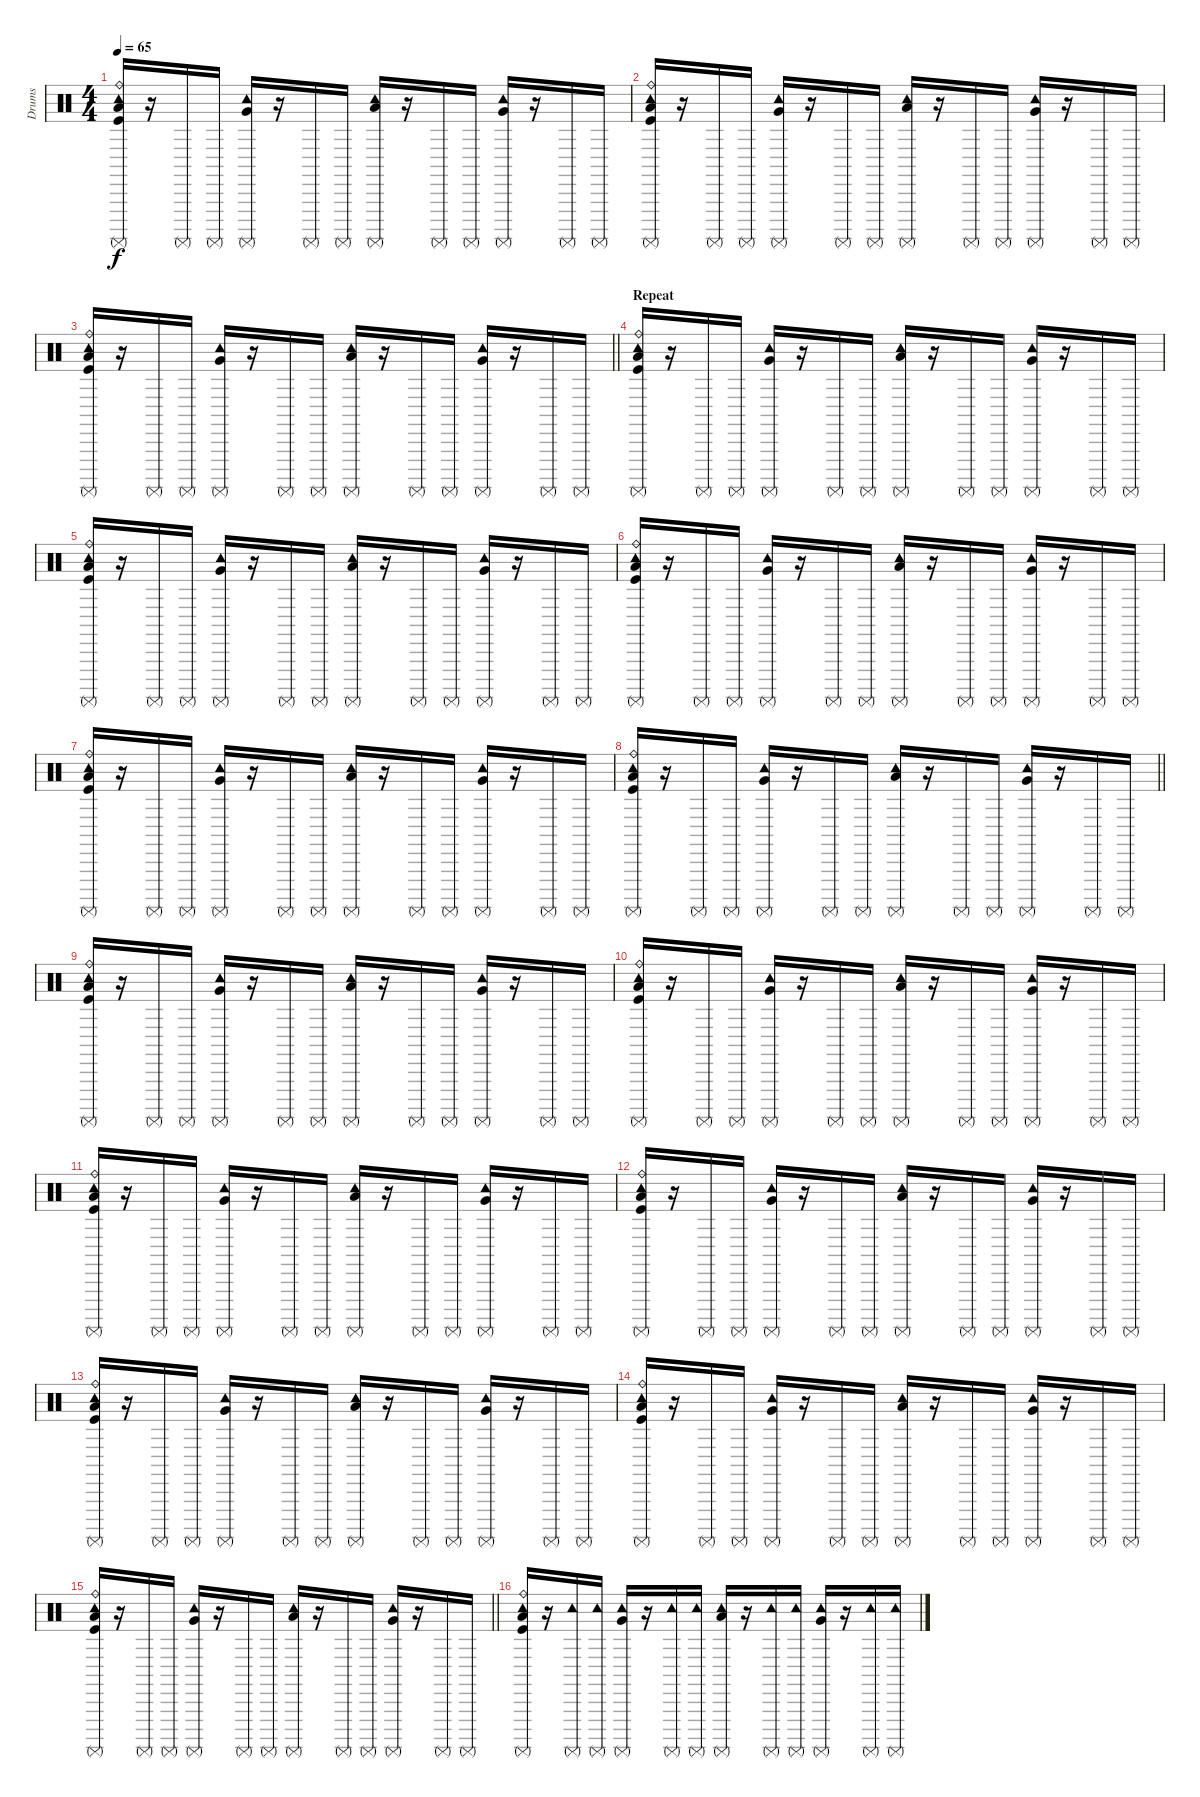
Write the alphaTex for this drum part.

\track ("Drums" "Drums") {instrument percussion}
\staff {score}
\articulation defaults
\ts (4 4)
\tempo 65
\clef neutral
\ks c
("Ride (bell)" "Tambourine (hit)" "Low Floor Tom (hit)" "Surdo (mute)" "Kick (hit)").16{dy f} r.16 "Surdo (mute)".16 "Surdo (mute)".16 ("Tambourine (hit)" "Very Low Tom (hit)" "Surdo (mute)").16 r.16 "Surdo (mute)".16 "Surdo (mute)".16 ("Tambourine (hit)" "Low Floor Tom (hit)" "Surdo (mute)").16 r.16 "Surdo (mute)".16 "Surdo (mute)".16 ("Tambourine (hit)" "Very Low Tom (hit)" "Surdo (mute)").16 r.16 "Surdo (mute)".16 "Surdo (mute)".16 |
("Ride (bell)" "Tambourine (hit)" "Low Floor Tom (hit)" "Surdo (mute)" "Kick (hit)").16 r.16 "Surdo (mute)".16 "Surdo (mute)".16 ("Tambourine (hit)" "Very Low Tom (hit)" "Surdo (mute)").16 r.16 "Surdo (mute)".16 "Surdo (mute)".16 ("Tambourine (hit)" "Low Floor Tom (hit)" "Surdo (mute)").16 r.16 "Surdo (mute)".16 "Surdo (mute)".16 ("Tambourine (hit)" "Very Low Tom (hit)" "Surdo (mute)").16 r.16 "Surdo (mute)".16 "Surdo (mute)".16 |
\barLineRight lightlight
("Ride (bell)" "Tambourine (hit)" "Low Floor Tom (hit)" "Surdo (mute)" "Kick (hit)").16 r.16 "Surdo (mute)".16 "Surdo (mute)".16 ("Tambourine (hit)" "Very Low Tom (hit)" "Surdo (mute)").16 r.16 "Surdo (mute)".16 "Surdo (mute)".16 ("Tambourine (hit)" "Low Floor Tom (hit)" "Surdo (mute)").16 r.16 "Surdo (mute)".16 "Surdo (mute)".16 ("Tambourine (hit)" "Very Low Tom (hit)" "Surdo (mute)").16 r.16 "Surdo (mute)".16 "Surdo (mute)".16 |
\section ("" "Repeat")
("Ride (bell)" "Tambourine (hit)" "Low Floor Tom (hit)" "Surdo (mute)" "Kick (hit)").16 r.16 "Surdo (mute)".16 "Surdo (mute)".16 ("Tambourine (hit)" "Very Low Tom (hit)" "Surdo (mute)").16 r.16 "Surdo (mute)".16 "Surdo (mute)".16 ("Tambourine (hit)" "Low Floor Tom (hit)" "Surdo (mute)").16 r.16 "Surdo (mute)".16 "Surdo (mute)".16 ("Tambourine (hit)" "Very Low Tom (hit)" "Surdo (mute)").16 r.16 "Surdo (mute)".16 "Surdo (mute)".16 |
("Ride (bell)" "Tambourine (hit)" "Low Floor Tom (hit)" "Surdo (mute)" "Kick (hit)").16 r.16 "Surdo (mute)".16 "Surdo (mute)".16 ("Tambourine (hit)" "Very Low Tom (hit)" "Surdo (mute)").16 r.16 "Surdo (mute)".16 "Surdo (mute)".16 ("Tambourine (hit)" "Low Floor Tom (hit)" "Surdo (mute)").16 r.16 "Surdo (mute)".16 "Surdo (mute)".16 ("Tambourine (hit)" "Very Low Tom (hit)" "Surdo (mute)").16 r.16 "Surdo (mute)".16 "Surdo (mute)".16 |
("Ride (bell)" "Tambourine (hit)" "Low Floor Tom (hit)" "Surdo (mute)" "Kick (hit)").16 r.16 "Surdo (mute)".16 "Surdo (mute)".16 ("Tambourine (hit)" "Very Low Tom (hit)" "Surdo (mute)").16 r.16 "Surdo (mute)".16 "Surdo (mute)".16 ("Tambourine (hit)" "Low Floor Tom (hit)" "Surdo (mute)").16 r.16 "Surdo (mute)".16 "Surdo (mute)".16 ("Tambourine (hit)" "Very Low Tom (hit)" "Surdo (mute)").16 r.16 "Surdo (mute)".16 "Surdo (mute)".16 |
("Ride (bell)" "Tambourine (hit)" "Low Floor Tom (hit)" "Surdo (mute)" "Kick (hit)").16 r.16 "Surdo (mute)".16 "Surdo (mute)".16 ("Tambourine (hit)" "Very Low Tom (hit)" "Surdo (mute)").16 r.16 "Surdo (mute)".16 "Surdo (mute)".16 ("Tambourine (hit)" "Low Floor Tom (hit)" "Surdo (mute)").16 r.16 "Surdo (mute)".16 "Surdo (mute)".16 ("Tambourine (hit)" "Very Low Tom (hit)" "Surdo (mute)").16 r.16 "Surdo (mute)".16 "Surdo (mute)".16 |
\barLineRight lightlight
("Ride (bell)" "Tambourine (hit)" "Low Floor Tom (hit)" "Surdo (mute)" "Kick (hit)").16 r.16 "Surdo (mute)".16 "Surdo (mute)".16 ("Tambourine (hit)" "Very Low Tom (hit)" "Surdo (mute)").16 r.16 "Surdo (mute)".16 "Surdo (mute)".16 ("Tambourine (hit)" "Low Floor Tom (hit)" "Surdo (mute)").16 r.16 "Surdo (mute)".16 "Surdo (mute)".16 ("Tambourine (hit)" "Very Low Tom (hit)" "Surdo (mute)").16 r.16 "Surdo (mute)".16 "Surdo (mute)".16 |
("Ride (bell)" "Tambourine (hit)" "Low Floor Tom (hit)" "Surdo (mute)" "Kick (hit)").16 r.16 "Surdo (mute)".16 "Surdo (mute)".16 ("Tambourine (hit)" "Very Low Tom (hit)" "Surdo (mute)").16 r.16 "Surdo (mute)".16 "Surdo (mute)".16 ("Tambourine (hit)" "Low Floor Tom (hit)" "Surdo (mute)").16 r.16 "Surdo (mute)".16 "Surdo (mute)".16 ("Tambourine (hit)" "Very Low Tom (hit)" "Surdo (mute)").16 r.16 "Surdo (mute)".16 "Surdo (mute)".16 |
("Ride (bell)" "Tambourine (hit)" "Low Floor Tom (hit)" "Surdo (mute)" "Kick (hit)").16 r.16 "Surdo (mute)".16 "Surdo (mute)".16 ("Tambourine (hit)" "Very Low Tom (hit)" "Surdo (mute)").16 r.16 "Surdo (mute)".16 "Surdo (mute)".16 ("Tambourine (hit)" "Low Floor Tom (hit)" "Surdo (mute)").16 r.16 "Surdo (mute)".16 "Surdo (mute)".16 ("Tambourine (hit)" "Very Low Tom (hit)" "Surdo (mute)").16 r.16 "Surdo (mute)".16 "Surdo (mute)".16 |
("Ride (bell)" "Tambourine (hit)" "Low Floor Tom (hit)" "Surdo (mute)" "Kick (hit)").16 r.16 "Surdo (mute)".16 "Surdo (mute)".16 ("Tambourine (hit)" "Very Low Tom (hit)" "Surdo (mute)").16 r.16 "Surdo (mute)".16 "Surdo (mute)".16 ("Tambourine (hit)" "Low Floor Tom (hit)" "Surdo (mute)").16 r.16 "Surdo (mute)".16 "Surdo (mute)".16 ("Tambourine (hit)" "Very Low Tom (hit)" "Surdo (mute)").16 r.16 "Surdo (mute)".16 "Surdo (mute)".16 |
("Ride (bell)" "Tambourine (hit)" "Low Floor Tom (hit)" "Surdo (mute)" "Kick (hit)").16 r.16 "Surdo (mute)".16 "Surdo (mute)".16 ("Tambourine (hit)" "Very Low Tom (hit)" "Surdo (mute)").16 r.16 "Surdo (mute)".16 "Surdo (mute)".16 ("Tambourine (hit)" "Low Floor Tom (hit)" "Surdo (mute)").16 r.16 "Surdo (mute)".16 "Surdo (mute)".16 ("Tambourine (hit)" "Very Low Tom (hit)" "Surdo (mute)").16 r.16 "Surdo (mute)".16 "Surdo (mute)".16 |
("Ride (bell)" "Tambourine (hit)" "Low Floor Tom (hit)" "Surdo (mute)" "Kick (hit)").16 r.16 "Surdo (mute)".16 "Surdo (mute)".16 ("Tambourine (hit)" "Very Low Tom (hit)" "Surdo (mute)").16 r.16 "Surdo (mute)".16 "Surdo (mute)".16 ("Tambourine (hit)" "Low Floor Tom (hit)" "Surdo (mute)").16 r.16 "Surdo (mute)".16 "Surdo (mute)".16 ("Tambourine (hit)" "Very Low Tom (hit)" "Surdo (mute)").16 r.16 "Surdo (mute)".16 "Surdo (mute)".16 |
("Ride (bell)" "Tambourine (hit)" "Low Floor Tom (hit)" "Surdo (mute)" "Kick (hit)").16 r.16 "Surdo (mute)".16 "Surdo (mute)".16 ("Tambourine (hit)" "Very Low Tom (hit)" "Surdo (mute)").16 r.16 "Surdo (mute)".16 "Surdo (mute)".16 ("Tambourine (hit)" "Low Floor Tom (hit)" "Surdo (mute)").16 r.16 "Surdo (mute)".16 "Surdo (mute)".16 ("Tambourine (hit)" "Very Low Tom (hit)" "Surdo (mute)").16 r.16 "Surdo (mute)".16 "Surdo (mute)".16 |
\barLineRight lightlight
("Ride (bell)" "Tambourine (hit)" "Low Floor Tom (hit)" "Surdo (mute)" "Kick (hit)").16 r.16 "Surdo (mute)".16 "Surdo (mute)".16 ("Tambourine (hit)" "Very Low Tom (hit)" "Surdo (mute)").16 r.16 "Surdo (mute)".16 "Surdo (mute)".16 ("Tambourine (hit)" "Low Floor Tom (hit)" "Surdo (mute)").16 r.16 "Surdo (mute)".16 "Surdo (mute)".16 ("Tambourine (hit)" "Very Low Tom (hit)" "Surdo (mute)").16 r.16 "Surdo (mute)".16 "Surdo (mute)".16 |
("Ride (bell)" "Tambourine (hit)" "Low Floor Tom (hit)" "Surdo (mute)" "Kick (hit)").16 r.16 ("Tambourine (hit)" "Surdo (mute)").16 ("Tambourine (hit)" "Surdo (mute)").16 ("Tambourine (hit)" "Very Low Tom (hit)" "Surdo (mute)").16 r.16 ("Tambourine (hit)" "Surdo (mute)").16 ("Tambourine (hit)" "Surdo (mute)").16 ("Tambourine (hit)" "Low Floor Tom (hit)" "Surdo (mute)").16 r.16 ("Tambourine (hit)" "Surdo (mute)").16 ("Tambourine (hit)" "Surdo (mute)").16 ("Tambourine (hit)" "Very Low Tom (hit)" "Surdo (mute)").16 r.16 ("Tambourine (hit)" "Surdo (mute)").16 ("Tambourine (hit)" "Surdo (mute)").16
